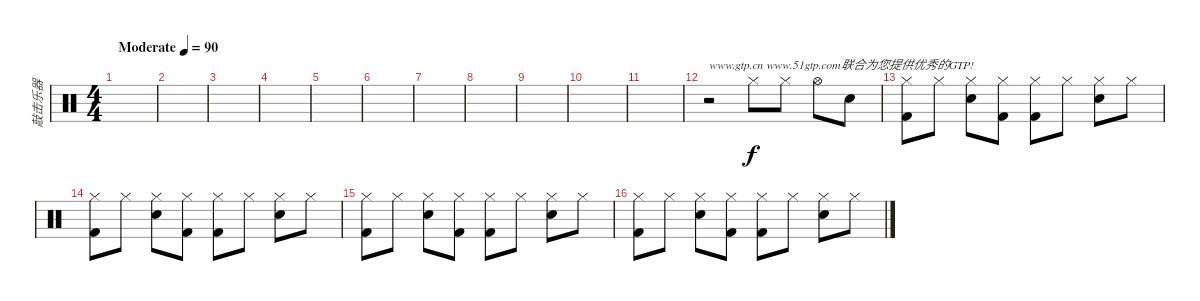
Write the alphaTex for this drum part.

\track ("敲击乐器" "敲击乐器") {instrument percussion}
\staff {score}
\articulation defaults
\ts (4 4)
\tempo (90 "Moderate")
\clef neutral
\ks c
|
|
|
|
|
|
|
|
|
|
|
r.2{txt "www.gtp.cn www.51gtp.com联合为您提供优秀的GTP!"} "Hi-Hat (closed)".8 "Hi-Hat (closed)".8 "Hi-Hat (open)".8 "Electric Snare (hit)".8 |
("Hi-Hat (closed)" "Kick (hit) 2").8 "Hi-Hat (closed)".8 ("Hi-Hat (closed)" "Electric Snare (hit)").8 ("Hi-Hat (closed)" "Kick (hit) 2").8 ("Hi-Hat (closed)" "Kick (hit) 2").8 "Hi-Hat (closed)".8 ("Hi-Hat (closed)" "Electric Snare (hit)").8 "Hi-Hat (closed)".8 |
("Hi-Hat (closed)" "Kick (hit) 2").8 "Hi-Hat (closed)".8 ("Hi-Hat (closed)" "Electric Snare (hit)").8 ("Hi-Hat (closed)" "Kick (hit) 2").8 ("Hi-Hat (closed)" "Kick (hit) 2").8 "Hi-Hat (closed)".8 ("Hi-Hat (closed)" "Electric Snare (hit)").8 "Hi-Hat (closed)".8 |
("Hi-Hat (closed)" "Kick (hit) 2").8 "Hi-Hat (closed)".8 ("Hi-Hat (closed)" "Electric Snare (hit)").8 ("Hi-Hat (closed)" "Kick (hit) 2").8 ("Hi-Hat (closed)" "Kick (hit) 2").8 "Hi-Hat (closed)".8 ("Hi-Hat (closed)" "Electric Snare (hit)").8 "Hi-Hat (closed)".8 |
("Hi-Hat (closed)" "Kick (hit) 2").8 "Hi-Hat (closed)".8 ("Hi-Hat (closed)" "Electric Snare (hit)").8 ("Hi-Hat (closed)" "Kick (hit) 2").8 ("Hi-Hat (closed)" "Kick (hit) 2").8 "Hi-Hat (closed)".8 ("Hi-Hat (closed)" "Electric Snare (hit)").8 "Hi-Hat (closed)".8
